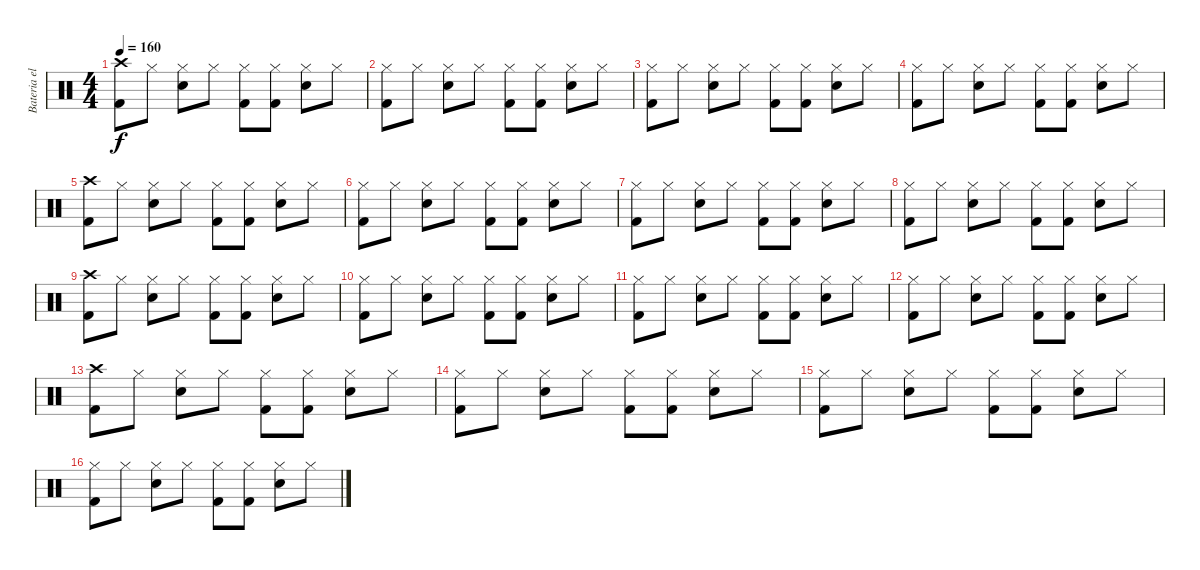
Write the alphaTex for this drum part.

\track ("Bateria electrica" "Bateria el") {instrument percussion}
\staff {score}
\articulation defaults
\ts (4 4)
\tempo 160
\clef neutral
\ks c
("Crash high (hit)" "Kick (hit) 2").8{dy f} "Hi-Hat (closed)".8 ("Hi-Hat (closed)" "Snare (hit) 2").8 "Hi-Hat (closed)".8 ("Hi-Hat (closed)" "Kick (hit) 2").8 ("Hi-Hat (closed)" "Kick (hit) 2").8 ("Hi-Hat (closed)" "Snare (hit) 2").8 "Hi-Hat (closed)".8 |
("Hi-Hat (closed)" "Kick (hit) 2").8 "Hi-Hat (closed)".8 ("Hi-Hat (closed)" "Snare (hit) 2").8 "Hi-Hat (closed)".8 ("Hi-Hat (closed)" "Kick (hit) 2").8 ("Hi-Hat (closed)" "Kick (hit) 2").8 ("Hi-Hat (closed)" "Snare (hit) 2").8 "Hi-Hat (closed)".8 |
("Hi-Hat (closed)" "Kick (hit) 2").8 "Hi-Hat (closed)".8 ("Hi-Hat (closed)" "Snare (hit) 2").8 "Hi-Hat (closed)".8 ("Hi-Hat (closed)" "Kick (hit) 2").8 ("Hi-Hat (closed)" "Kick (hit) 2").8 ("Hi-Hat (closed)" "Snare (hit) 2").8 "Hi-Hat (closed)".8 |
("Hi-Hat (closed)" "Kick (hit) 2").8 "Hi-Hat (closed)".8 ("Hi-Hat (closed)" "Snare (hit) 2").8 "Hi-Hat (closed)".8 ("Hi-Hat (closed)" "Kick (hit) 2").8 ("Hi-Hat (closed)" "Kick (hit) 2").8 ("Hi-Hat (closed)" "Snare (hit) 2").8 "Hi-Hat (closed)".8 |
("Crash high (hit)" "Kick (hit) 2").8 "Hi-Hat (closed)".8 ("Hi-Hat (closed)" "Snare (hit) 2").8 "Hi-Hat (closed)".8 ("Hi-Hat (closed)" "Kick (hit) 2").8 ("Hi-Hat (closed)" "Kick (hit) 2").8 ("Hi-Hat (closed)" "Snare (hit) 2").8 "Hi-Hat (closed)".8 |
("Hi-Hat (closed)" "Kick (hit) 2").8 "Hi-Hat (closed)".8 ("Hi-Hat (closed)" "Snare (hit) 2").8 "Hi-Hat (closed)".8 ("Hi-Hat (closed)" "Kick (hit) 2").8 ("Hi-Hat (closed)" "Kick (hit) 2").8 ("Hi-Hat (closed)" "Snare (hit) 2").8 "Hi-Hat (closed)".8 |
("Hi-Hat (closed)" "Kick (hit) 2").8 "Hi-Hat (closed)".8 ("Hi-Hat (closed)" "Snare (hit) 2").8 "Hi-Hat (closed)".8 ("Hi-Hat (closed)" "Kick (hit) 2").8 ("Hi-Hat (closed)" "Kick (hit) 2").8 ("Hi-Hat (closed)" "Snare (hit) 2").8 "Hi-Hat (closed)".8 |
("Hi-Hat (closed)" "Kick (hit) 2").8 "Hi-Hat (closed)".8 ("Hi-Hat (closed)" "Snare (hit) 2").8 "Hi-Hat (closed)".8 ("Hi-Hat (closed)" "Kick (hit) 2").8 ("Hi-Hat (closed)" "Kick (hit) 2").8 ("Hi-Hat (closed)" "Snare (hit) 2").8 "Hi-Hat (closed)".8 |
("Crash high (hit)" "Kick (hit) 2").8 "Hi-Hat (closed)".8 ("Hi-Hat (closed)" "Snare (hit) 2").8 "Hi-Hat (closed)".8 ("Hi-Hat (closed)" "Kick (hit) 2").8 ("Hi-Hat (closed)" "Kick (hit) 2").8 ("Hi-Hat (closed)" "Snare (hit) 2").8 "Hi-Hat (closed)".8 |
("Hi-Hat (closed)" "Kick (hit) 2").8{volume 11} "Hi-Hat (closed)".8 ("Hi-Hat (closed)" "Snare (hit) 2").8 "Hi-Hat (closed)".8 ("Hi-Hat (closed)" "Kick (hit) 2").8 ("Hi-Hat (closed)" "Kick (hit) 2").8 ("Hi-Hat (closed)" "Snare (hit) 2").8 "Hi-Hat (closed)".8 |
("Hi-Hat (closed)" "Kick (hit) 2").8 "Hi-Hat (closed)".8 ("Hi-Hat (closed)" "Snare (hit) 2").8 "Hi-Hat (closed)".8 ("Hi-Hat (closed)" "Kick (hit) 2").8 ("Hi-Hat (closed)" "Kick (hit) 2").8 ("Hi-Hat (closed)" "Snare (hit) 2").8 "Hi-Hat (closed)".8 |
("Hi-Hat (closed)" "Kick (hit) 2").8 "Hi-Hat (closed)".8 ("Hi-Hat (closed)" "Snare (hit) 2").8 "Hi-Hat (closed)".8 ("Hi-Hat (closed)" "Kick (hit) 2").8 ("Hi-Hat (closed)" "Kick (hit) 2").8 ("Hi-Hat (closed)" "Snare (hit) 2").8 "Hi-Hat (closed)".8 |
("Crash high (hit)" "Kick (hit) 2").8 "Hi-Hat (closed)".8 ("Hi-Hat (closed)" "Snare (hit) 2").8 "Hi-Hat (closed)".8 ("Hi-Hat (closed)" "Kick (hit) 2").8 ("Hi-Hat (closed)" "Kick (hit) 2").8 ("Hi-Hat (closed)" "Snare (hit) 2").8 "Hi-Hat (closed)".8 |
("Hi-Hat (closed)" "Kick (hit) 2").8 "Hi-Hat (closed)".8 ("Hi-Hat (closed)" "Snare (hit) 2").8 "Hi-Hat (closed)".8 ("Hi-Hat (closed)" "Kick (hit) 2").8 ("Hi-Hat (closed)" "Kick (hit) 2").8 ("Hi-Hat (closed)" "Snare (hit) 2").8 "Hi-Hat (closed)".8 |
("Hi-Hat (closed)" "Kick (hit) 2").8{volume 8} "Hi-Hat (closed)".8 ("Hi-Hat (closed)" "Snare (hit) 2").8 "Hi-Hat (closed)".8 ("Hi-Hat (closed)" "Kick (hit) 2").8 ("Hi-Hat (closed)" "Kick (hit) 2").8 ("Hi-Hat (closed)" "Snare (hit) 2").8 "Hi-Hat (closed)".8 |
("Hi-Hat (closed)" "Kick (hit) 2").8 "Hi-Hat (closed)".8 ("Hi-Hat (closed)" "Snare (hit) 2").8 "Hi-Hat (closed)".8 ("Hi-Hat (closed)" "Kick (hit) 2").8 ("Hi-Hat (closed)" "Kick (hit) 2").8 ("Hi-Hat (closed)" "Snare (hit) 2").8 "Hi-Hat (closed)".8
